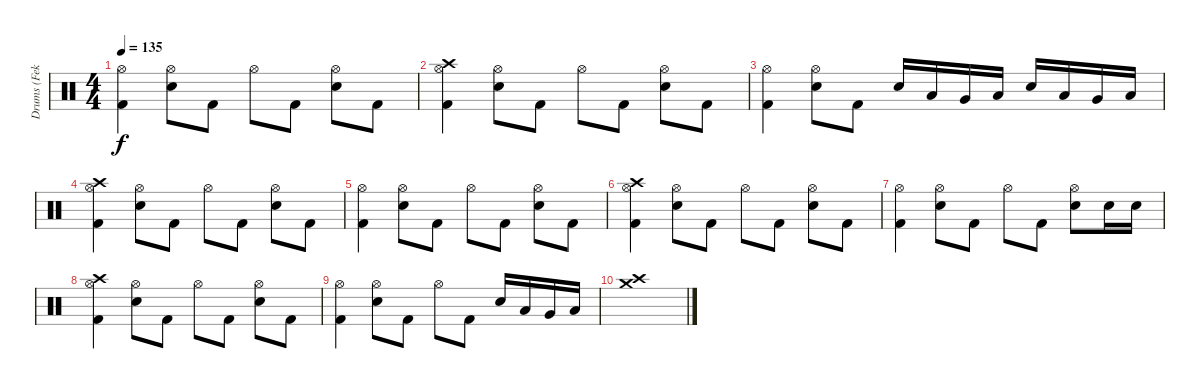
\track ("Drums (Feka)" "Drums (Fek") {instrument percussion}
\staff {score}
\articulation defaults
\ts (4 4)
\tempo 135
\clef neutral
\ks c
("Hi-Hat (open)" "Kick (hit) 2").4{dy f} ("Hi-Hat (open)" "Snare (hit) 2").8 "Kick (hit) 2".8 "Hi-Hat (open)".8 "Kick (hit) 2".8 ("Hi-Hat (open)" "Snare (hit) 2").8 "Kick (hit) 2".8 |
("Crash high (hit)" "Hi-Hat (open)" "Kick (hit) 2").4 ("Hi-Hat (open)" "Snare (hit) 2").8 "Kick (hit) 2".8 "Hi-Hat (open)".8 "Kick (hit) 2".8 ("Hi-Hat (open)" "Snare (hit) 2").8 "Kick (hit) 2".8 |
("Hi-Hat (open)" "Kick (hit) 2").4 ("Hi-Hat (open)" "Snare (hit) 2").8 "Kick (hit) 2".8 "Snare (hit) 2".16 "Low Tom (hit)".16 "Very Low Tom (hit)".16 "Low Floor Tom (hit)".16 "Snare (hit) 2".16 "Low Tom (hit)".16 "Very Low Tom (hit)".16 "Low Floor Tom (hit)".16 |
("Crash high (hit)" "Hi-Hat (open)" "Kick (hit) 2").4 ("Hi-Hat (open)" "Snare (hit) 2").8 "Kick (hit) 2".8 "Hi-Hat (open)".8 "Kick (hit) 2".8 ("Hi-Hat (open)" "Snare (hit) 2").8 "Kick (hit) 2".8 |
("Hi-Hat (open)" "Kick (hit) 2").4 ("Hi-Hat (open)" "Snare (hit) 2").8 "Kick (hit) 2".8 "Hi-Hat (open)".8 "Kick (hit) 2".8 ("Hi-Hat (open)" "Snare (hit) 2").8 "Kick (hit) 2".8 |
("Crash high (hit)" "Hi-Hat (open)" "Kick (hit) 2").4 ("Hi-Hat (open)" "Snare (hit) 2").8 "Kick (hit) 2".8 "Hi-Hat (open)".8 "Kick (hit) 2".8 ("Hi-Hat (open)" "Snare (hit) 2").8 "Kick (hit) 2".8 |
("Hi-Hat (open)" "Kick (hit) 2").4 ("Hi-Hat (open)" "Snare (hit) 2").8 "Kick (hit) 2".8 "Hi-Hat (open)".8 "Kick (hit) 2".8 ("Hi-Hat (open)" "Snare (hit) 2").8 "Snare (hit) 2".16 "Snare (hit) 2".16 |
("Crash high (hit)" "Hi-Hat (open)" "Kick (hit) 2").4 ("Hi-Hat (open)" "Snare (hit) 2").8 "Kick (hit) 2".8 "Hi-Hat (open)".8 "Kick (hit) 2".8 ("Hi-Hat (open)" "Snare (hit) 2").8 "Kick (hit) 2".8 |
("Hi-Hat (open)" "Kick (hit) 2").4 ("Hi-Hat (open)" "Snare (hit) 2").8 "Kick (hit) 2".8 "Hi-Hat (open)".8 "Kick (hit) 2".8 "Snare (hit) 2".16 "Low Tom (hit)".16 "Very Low Tom (hit)".16 "Low Floor Tom (hit)".16 |
("Crash high (hit)" "Crash medium (hit)").1
